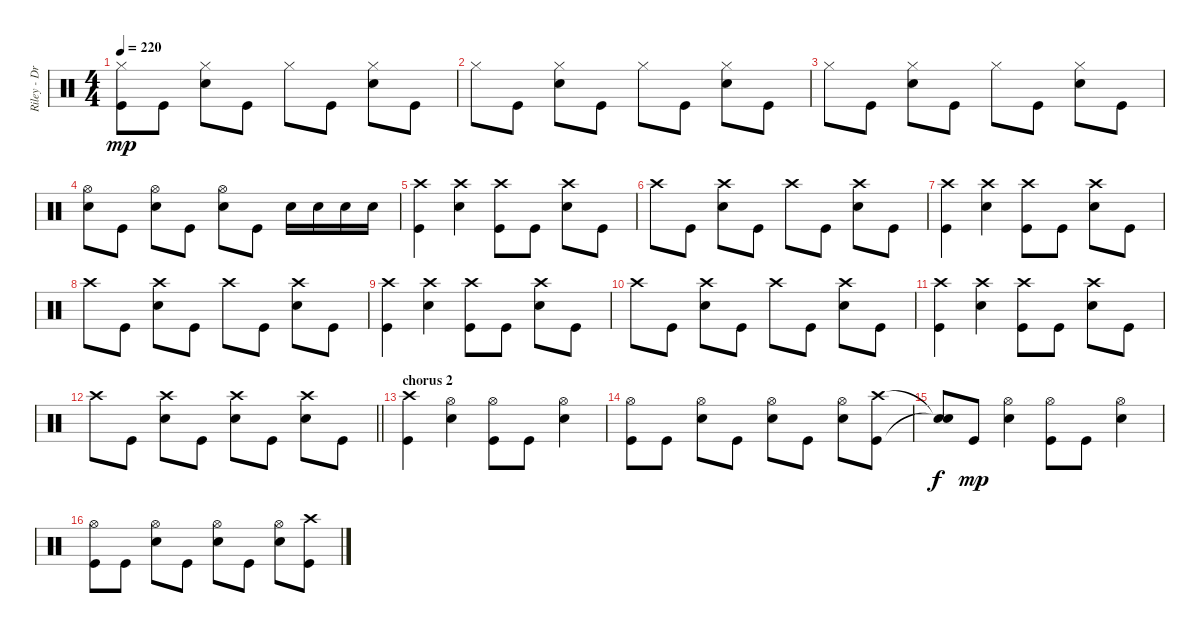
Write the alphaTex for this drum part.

\track ("Riley - Drums" "Riley - Dr") {instrument percussion}
\staff {score}
\articulation defaults
\ts (4 4)
\tempo 220
\clef neutral
\ks c
("Kick (hit)" "Hi-Hat (closed)").8{dy mp} "Kick (hit)".8 ("Electric Snare (hit)" "Hi-Hat (closed)").8 "Kick (hit)".8 "Hi-Hat (closed)".8 "Kick (hit)".8 ("Electric Snare (hit)" "Hi-Hat (closed)").8 "Kick (hit)".8 |
"Hi-Hat (closed)".8 "Kick (hit)".8 ("Electric Snare (hit)" "Hi-Hat (closed)").8 "Kick (hit)".8 "Hi-Hat (closed)".8 "Kick (hit)".8 ("Electric Snare (hit)" "Hi-Hat (closed)").8 "Kick (hit)".8 |
"Hi-Hat (closed)".8 "Kick (hit)".8 ("Electric Snare (hit)" "Hi-Hat (closed)").8 "Kick (hit)".8 "Hi-Hat (closed)".8 "Kick (hit)".8 ("Electric Snare (hit)" "Hi-Hat (closed)").8 "Kick (hit)".8 |
("Electric Snare (hit)" "Hi-Hat (open)").8 "Kick (hit)".8 ("Electric Snare (hit)" "Hi-Hat (open)").8 "Kick (hit)".8 ("Electric Snare (hit)" "Hi-Hat (open)").8 "Kick (hit)".8 "Electric Snare (hit)".16 "Electric Snare (hit)".16 "Electric Snare (hit)".16 "Electric Snare (hit)".16 |
("Kick (hit)" "Crash high (hit)").4 ("Electric Snare (hit)" "Crash high (hit)").4 ("Kick (hit)" "Crash high (hit)").8 "Kick (hit)".8 ("Electric Snare (hit)" "Crash high (hit)").8 "Kick (hit)".8 |
"Crash high (hit)".8 "Kick (hit)".8 ("Electric Snare (hit)" "Crash high (hit)").8 "Kick (hit)".8 "Crash high (hit)".8 "Kick (hit)".8 ("Electric Snare (hit)" "Crash high (hit)").8 "Kick (hit)".8 |
("Kick (hit)" "Crash high (hit)").4 ("Electric Snare (hit)" "Crash high (hit)").4 ("Kick (hit)" "Crash high (hit)").8 "Kick (hit)".8 ("Electric Snare (hit)" "Crash high (hit)").8 "Kick (hit)".8 |
"Crash high (hit)".8 "Kick (hit)".8 ("Electric Snare (hit)" "Crash high (hit)").8 "Kick (hit)".8 "Crash high (hit)".8 "Kick (hit)".8 ("Electric Snare (hit)" "Crash high (hit)").8 "Kick (hit)".8 |
("Kick (hit)" "Crash high (hit)").4 ("Electric Snare (hit)" "Crash high (hit)").4 ("Kick (hit)" "Crash high (hit)").8 "Kick (hit)".8 ("Electric Snare (hit)" "Crash high (hit)").8 "Kick (hit)".8 |
"Crash high (hit)".8 "Kick (hit)".8 ("Electric Snare (hit)" "Crash high (hit)").8 "Kick (hit)".8 "Crash high (hit)".8 "Kick (hit)".8 ("Electric Snare (hit)" "Crash high (hit)").8 "Kick (hit)".8 |
("Kick (hit)" "Crash high (hit)").4 ("Electric Snare (hit)" "Crash high (hit)").4 ("Kick (hit)" "Crash high (hit)").8 "Kick (hit)".8 ("Electric Snare (hit)" "Crash high (hit)").8 "Kick (hit)".8 |
\barLineRight lightlight "Crash high (hit)".8 "Kick (hit)".8
("Electric Snare (hit)" "Crash high (hit)").8 "Kick (hit)".8 ("Electric Snare (hit)" "Crash high (hit)").8 "Kick (hit)".8 ("Electric Snare (hit)" "Crash high (hit)").8 "Kick (hit)".8 |
\section ("" "chorus 2")
("Kick (hit)" "Crash high (hit)").4 ("Electric Snare (hit)" "Hi-Hat (open)").4 ("Kick (hit)" "Hi-Hat (open)").8 "Kick (hit)".8 ("Electric Snare (hit)" "Hi-Hat (open)").4 |
("Kick (hit)" "Hi-Hat (open)").8 "Kick (hit)".8 ("Electric Snare (hit)" "Hi-Hat (open)").8 "Kick (hit)".8 ("Electric Snare (hit)" "Hi-Hat (open)").8 "Kick (hit)".8 ("Electric Snare (hit)" "Hi-Hat (open)").8 ("Kick (hit)" "Crash high (hit)").8 |
("Snare (hit)"{t} "Snare (hit)"{t}).8{dy f} "Kick (hit)".8{dy mp} ("Electric Snare (hit)" "Hi-Hat (open)").4 ("Kick (hit)" "Hi-Hat (open)").8 "Kick (hit)".8 ("Electric Snare (hit)" "Hi-Hat (open)").4 |
("Kick (hit)" "Hi-Hat (open)").8 "Kick (hit)".8 ("Electric Snare (hit)" "Hi-Hat (open)").8 "Kick (hit)".8 ("Electric Snare (hit)" "Hi-Hat (open)").8 "Kick (hit)".8 ("Electric Snare (hit)" "Hi-Hat (open)").8 ("Kick (hit)" "Crash high (hit)").8
